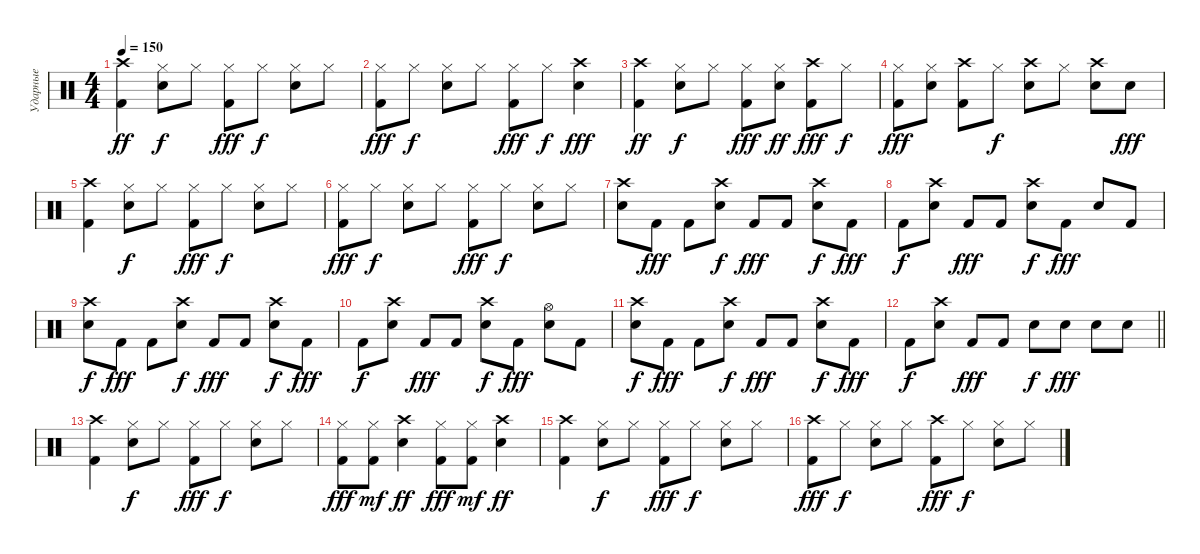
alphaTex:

\track ("Ударные" "Ударные") {instrument percussion}
\staff {score}
\articulation defaults
\ts (4 4)
\tempo 150
\clef neutral
\ks c
("Kick (hit) 2" "Crash high (hit)").4{dy ff} ("Snare (hit) 2" "Hi-Hat (closed)").8{dy f} "Hi-Hat (closed)".8 ("Kick (hit) 2" "Hi-Hat (closed)").8{dy fff} "Hi-Hat (closed)".8{dy f} ("Snare (hit) 2" "Hi-Hat (closed)").8 "Hi-Hat (closed)".8 |
("Kick (hit) 2" "Hi-Hat (closed)").8{dy fff} "Hi-Hat (closed)".8{dy f} ("Snare (hit) 2" "Hi-Hat (closed)").8 "Hi-Hat (closed)".8 ("Kick (hit) 2" "Hi-Hat (closed)").8{dy fff} "Hi-Hat (closed)".8{dy f} ("Snare (hit) 2" "Crash high (hit)").4{dy fff} |
("Kick (hit) 2" "Crash high (hit)").4{dy ff} ("Snare (hit) 2" "Hi-Hat (closed)").8{dy f} "Hi-Hat (closed)".8 ("Kick (hit) 2" "Hi-Hat (closed)").8{dy fff} ("Snare (hit) 2" "Hi-Hat (closed)").8{dy ff} ("Kick (hit) 2" "Crash high (hit)").8{dy fff} "Hi-Hat (closed)".8{dy f} |
("Kick (hit) 2" "Hi-Hat (closed)").8{dy fff} ("Snare (hit) 2" "Hi-Hat (closed)").8 ("Kick (hit) 2" "Crash high (hit)").8 "Hi-Hat (closed)".8{dy f} ("Snare (hit) 2" "Crash high (hit)").8 "Hi-Hat (closed)".8 ("Snare (hit) 2" "Crash high (hit)").8 "Snare (hit) 2".8{dy fff} |
("Kick (hit) 2" "Crash high (hit)").4 ("Snare (hit) 2" "Hi-Hat (closed)").8{dy f} "Hi-Hat (closed)".8 ("Kick (hit) 2" "Hi-Hat (closed)").8{dy fff} "Hi-Hat (closed)".8{dy f} ("Snare (hit) 2" "Hi-Hat (closed)").8 "Hi-Hat (closed)".8 |
("Kick (hit) 2" "Hi-Hat (closed)").8{dy fff} "Hi-Hat (closed)".8{dy f} ("Snare (hit) 2" "Hi-Hat (closed)").8 "Hi-Hat (closed)".8 ("Kick (hit) 2" "Hi-Hat (closed)").8{dy fff} "Hi-Hat (closed)".8{dy f} ("Snare (hit) 2" "Hi-Hat (closed)").8 "Hi-Hat (closed)".8 |
("Snare (hit) 2" "Crash high (hit)").8 "Kick (hit) 2".8{dy fff} "Kick (hit) 2".8 ("Snare (hit) 2" "Crash high (hit)").8{dy f} "Kick (hit) 2".8{dy fff} "Kick (hit) 2".8 ("Snare (hit) 2" "Crash high (hit)").8{dy f} "Kick (hit) 2".8{dy fff} |
"Kick (hit) 2".8{dy f} ("Snare (hit) 2" "Crash high (hit)").8 "Kick (hit) 2".8{dy fff} "Kick (hit) 2".8 ("Snare (hit) 2" "Crash high (hit)").8{dy f} "Kick (hit) 2".8{dy fff} "Snare (hit) 2".8 "Kick (hit) 2".8 |
("Snare (hit) 2" "Crash high (hit)").8{dy f} "Kick (hit) 2".8{dy fff} "Kick (hit) 2".8 ("Snare (hit) 2" "Crash high (hit)").8{dy f} "Kick (hit) 2".8{dy fff} "Kick (hit) 2".8 ("Snare (hit) 2" "Crash high (hit)").8{dy f} "Kick (hit) 2".8{dy fff} |
"Kick (hit) 2".8{dy f} ("Snare (hit) 2" "Crash high (hit)").8 "Kick (hit) 2".8{dy fff} "Kick (hit) 2".8 ("Snare (hit) 2" "Crash high (hit)").8{dy f} "Kick (hit) 2".8{dy fff} ("Snare (hit) 2" "Hi-Hat (open)").8 "Kick (hit) 2".8 |
("Snare (hit) 2" "Crash high (hit)").8{dy f} "Kick (hit) 2".8{dy fff} "Kick (hit) 2".8 ("Snare (hit) 2" "Crash high (hit)").8{dy f} "Kick (hit) 2".8{dy fff} "Kick (hit) 2".8 ("Snare (hit) 2" "Crash high (hit)").8{dy f} "Kick (hit) 2".8{dy fff} |
\barLineRight lightlight "Kick (hit) 2".8{dy f}
("Snare (hit) 2" "Crash high (hit)").8 "Kick (hit) 2".8{dy fff} "Kick (hit) 2".8 "Snare (hit) 2".8{dy f} "Snare (hit) 2".8{dy fff} "Snare (hit) 2".8 "Snare (hit) 2".8 |
("Kick (hit) 2" "Crash high (hit)").4 ("Snare (hit) 2" "Hi-Hat (closed)").8{dy f} "Hi-Hat (closed)".8 ("Kick (hit) 2" "Hi-Hat (closed)").8{dy fff} "Hi-Hat (closed)".8{dy f} ("Snare (hit) 2" "Hi-Hat (closed)").8 "Hi-Hat (closed)".8 |
("Kick (hit) 2" "Hi-Hat (closed)").8{dy fff} ("Kick (hit) 2" "Hi-Hat (closed)").8{dy mf} ("Snare (hit) 2" "Crash high (hit)").4{dy ff} ("Kick (hit) 2" "Hi-Hat (closed)").8{dy fff} ("Kick (hit) 2" "Hi-Hat (closed)").8{dy mf} ("Snare (hit) 2" "Crash high (hit)").4{dy ff} |
("Kick (hit) 2" "Crash high (hit)").4 ("Snare (hit) 2" "Hi-Hat (closed)").8{dy f} "Hi-Hat (closed)".8 ("Kick (hit) 2" "Hi-Hat (closed)").8{dy fff} "Hi-Hat (closed)".8{dy f} ("Snare (hit) 2" "Hi-Hat (closed)").8 "Hi-Hat (closed)".8 |
("Kick (hit) 2" "Crash high (hit)").8{dy fff} "Hi-Hat (closed)".8{dy f} ("Snare (hit) 2" "Hi-Hat (closed)").8 "Hi-Hat (closed)".8 ("Kick (hit) 2" "Crash high (hit)").8{dy fff} "Hi-Hat (closed)".8{dy f} ("Snare (hit) 2" "Hi-Hat (closed)").8 "Hi-Hat (closed)".8
